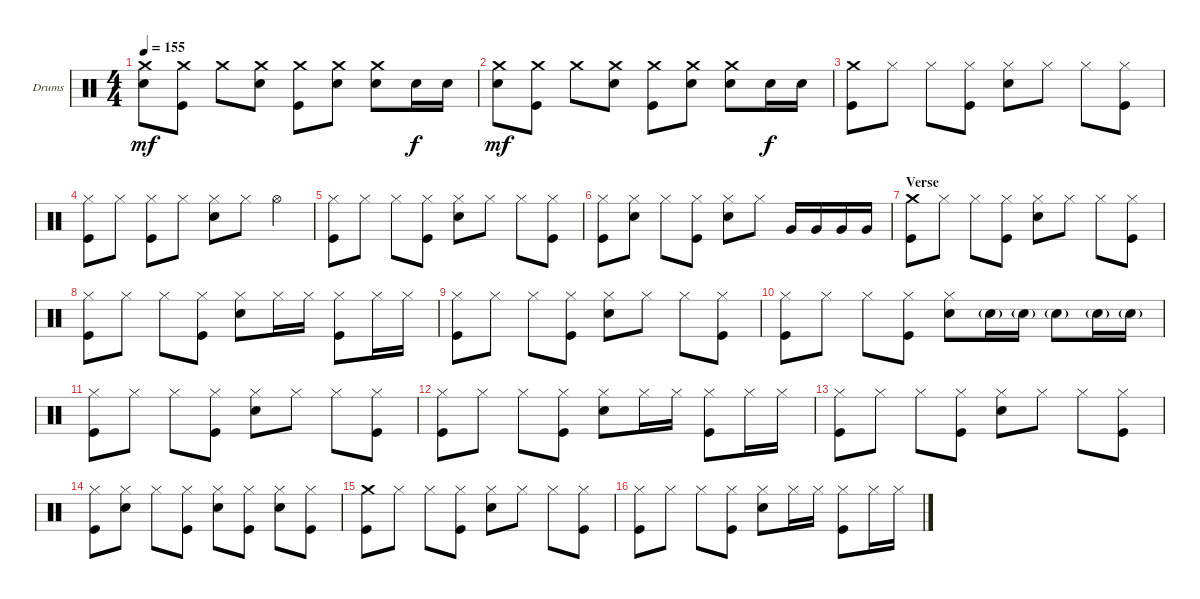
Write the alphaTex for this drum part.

\bracketExtendMode groupsimilarinstruments
\firstSystemTrackNameOrientation horizontal
\otherSystemsTrackNameOrientation horizontal
\track ("Drumkit" "Drums") {instrument percussion}
\staff {score}
\articulation defaults
\ts (4 4)
\tempo 155
\clef neutral
\ks c
("Crash medium (hit)" "Snare (hit) 2").8{dy mf} ("Crash medium (hit)" "Kick (hit)").8 "Crash medium (hit)".8 ("Crash medium (hit)" "Snare (hit) 2").8 ("Crash medium (hit)" "Kick (hit)").8 ("Crash medium (hit)" "Snare (hit) 2").8 ("Crash medium (hit)" "Snare (hit) 2").8 "Snare (hit) 2".16{dy f} "Snare (hit) 2".16 |
("Crash medium (hit)" "Snare (hit) 2").8{dy mf} ("Crash medium (hit)" "Kick (hit)").8 "Crash medium (hit)".8 ("Crash medium (hit)" "Snare (hit) 2").8 ("Crash medium (hit)" "Kick (hit)").8 ("Crash medium (hit)" "Snare (hit) 2").8 ("Crash medium (hit)" "Snare (hit) 2").8 "Snare (hit) 2".16{dy f} "Snare (hit) 2".16 |
("Crash medium (hit)" "Kick (hit)").8 "Hi-Hat (closed)".8 "Hi-Hat (closed)".8 ("Kick (hit)" "Hi-Hat (closed)").8 ("Snare (hit) 2" "Hi-Hat (closed)").8 "Hi-Hat (closed)".8 "Hi-Hat (closed)".8 ("Kick (hit)" "Hi-Hat (closed)").8 |
("Kick (hit)" "Hi-Hat (closed)").8 "Hi-Hat (closed)".8 ("Kick (hit)" "Hi-Hat (closed)").8 "Hi-Hat (closed)".8 ("Snare (hit) 2" "Hi-Hat (closed)").8 "Hi-Hat (closed)".8 "Hi-Hat (open)".4 |
("Kick (hit)" "Hi-Hat (closed)").8 "Hi-Hat (closed)".8 "Hi-Hat (closed)".8 ("Kick (hit)" "Hi-Hat (closed)").8 ("Snare (hit) 2" "Hi-Hat (closed)").8 "Hi-Hat (closed)".8 "Hi-Hat (closed)".8 ("Kick (hit)" "Hi-Hat (closed)").8 |
("Kick (hit)" "Hi-Hat (closed)").8 ("Snare (hit) 2" "Hi-Hat (closed)").8 "Hi-Hat (closed)".8 ("Kick (hit)" "Hi-Hat (closed)").8 ("Snare (hit) 2" "Hi-Hat (closed)").8 "Hi-Hat (closed)".8 "Very Low Tom (hit)".16 "Very Low Tom (hit)".16 "Very Low Tom (hit)".16 "Very Low Tom (hit)".16 |
\section ("" "Verse")
("Kick (hit)" "Crash medium (hit)").8 "Hi-Hat (closed)".8 "Hi-Hat (closed)".8 ("Kick (hit)" "Hi-Hat (closed)").8 ("Snare (hit) 2" "Hi-Hat (closed)").8 "Hi-Hat (closed)".8 "Hi-Hat (closed)".8 ("Kick (hit)" "Hi-Hat (closed)").8 |
("Kick (hit)" "Hi-Hat (closed)").8 "Hi-Hat (closed)".8 "Hi-Hat (closed)".8 ("Hi-Hat (closed)" "Kick (hit)").8 ("Snare (hit) 2" "Hi-Hat (closed)").8 "Hi-Hat (closed)".16 "Hi-Hat (closed)".16 ("Hi-Hat (closed)" "Kick (hit)").8 "Hi-Hat (closed)".16 "Hi-Hat (closed)".16 |
("Kick (hit)" "Hi-Hat (closed)").8 "Hi-Hat (closed)".8 "Hi-Hat (closed)".8 ("Kick (hit)" "Hi-Hat (closed)").8 ("Snare (hit) 2" "Hi-Hat (closed)").8 "Hi-Hat (closed)".8 "Hi-Hat (closed)".8 ("Kick (hit)" "Hi-Hat (closed)").8 |
("Kick (hit)" "Hi-Hat (closed)").8 "Hi-Hat (closed)".8 "Hi-Hat (closed)".8 ("Kick (hit)" "Hi-Hat (closed)").8 ("Hi-Hat (closed)" "Snare (hit) 2").8 "Snare (hit) 2"{g}.16 "Snare (hit) 2"{g}.16 "Snare (hit) 2"{g}.8 "Snare (hit) 2"{g}.16 "Snare (hit) 2"{g}.16 |
("Kick (hit)" "Hi-Hat (closed)").8 "Hi-Hat (closed)".8 "Hi-Hat (closed)".8 ("Kick (hit)" "Hi-Hat (closed)").8 ("Snare (hit) 2" "Hi-Hat (closed)").8 "Hi-Hat (closed)".8 "Hi-Hat (closed)".8 ("Kick (hit)" "Hi-Hat (closed)").8 |
("Kick (hit)" "Hi-Hat (closed)").8 "Hi-Hat (closed)".8 "Hi-Hat (closed)".8 ("Hi-Hat (closed)" "Kick (hit)").8 ("Snare (hit) 2" "Hi-Hat (closed)").8 "Hi-Hat (closed)".16 "Hi-Hat (closed)".16 ("Hi-Hat (closed)" "Kick (hit)").8 "Hi-Hat (closed)".16 "Hi-Hat (closed)".16 |
("Kick (hit)" "Hi-Hat (closed)").8 "Hi-Hat (closed)".8 "Hi-Hat (closed)".8 ("Kick (hit)" "Hi-Hat (closed)").8 ("Snare (hit) 2" "Hi-Hat (closed)").8 "Hi-Hat (closed)".8 "Hi-Hat (closed)".8 ("Kick (hit)" "Hi-Hat (closed)").8 |
("Kick (hit)" "Hi-Hat (closed)").8 ("Snare (hit) 2" "Hi-Hat (closed)").8 "Hi-Hat (closed)".8 ("Kick (hit)" "Hi-Hat (closed)").8 ("Snare (hit) 2" "Hi-Hat (closed)").8 ("Kick (hit)" "Hi-Hat (closed)").8 ("Snare (hit) 2" "Hi-Hat (closed)").8 ("Kick (hit)" "Hi-Hat (closed)").8 |
("Kick (hit)" "Crash medium (hit)").8 "Hi-Hat (closed)".8 "Hi-Hat (closed)".8 ("Kick (hit)" "Hi-Hat (closed)").8 ("Snare (hit) 2" "Hi-Hat (closed)").8 "Hi-Hat (closed)".8 "Hi-Hat (closed)".8 ("Kick (hit)" "Hi-Hat (closed)").8 |
("Kick (hit)" "Hi-Hat (closed)").8 "Hi-Hat (closed)".8 "Hi-Hat (closed)".8 ("Hi-Hat (closed)" "Kick (hit)").8 ("Snare (hit) 2" "Hi-Hat (closed)").8 "Hi-Hat (closed)".16 "Hi-Hat (closed)".16 ("Hi-Hat (closed)" "Kick (hit)").8 "Hi-Hat (closed)".16 "Hi-Hat (closed)".16
